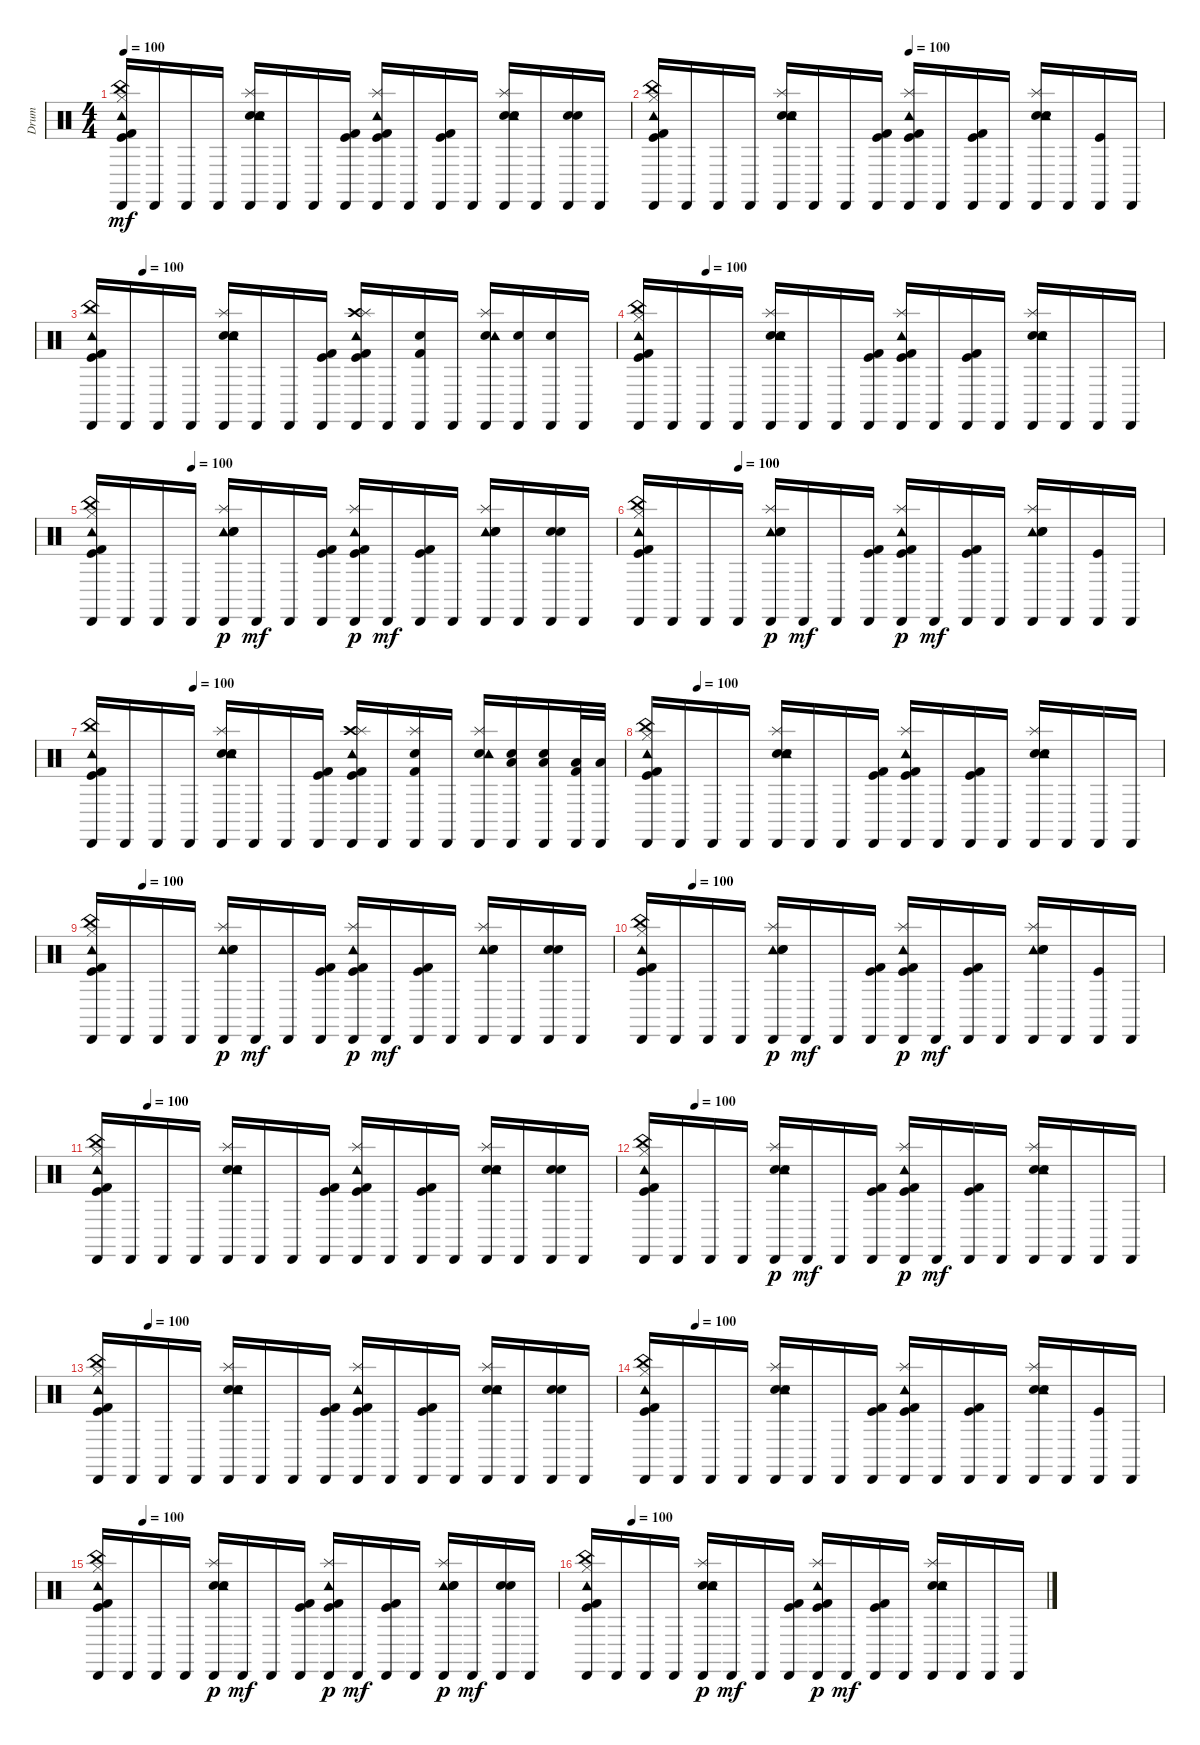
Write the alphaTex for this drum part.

\track ("Drum" "Drum") {instrument percussion}
\staff {score}
\articulation defaults
\ts (4 4)
\tempo 100
\clef neutral
\ks c
("China (hit)" "Kick (hit)" "Hi-Hat (closed)" "Kick (hit) 2" "Tambourine (hit)" "Cabasa (hit)").16{dy mf} "Cabasa (hit)".16 "Cabasa (hit)".16 "Cabasa (hit)".16 ("Electric Snare (hit)" "Splash (hit)" "Snare (hit) 2" "Cabasa (hit)" "Tambourine (hit)").16 "Cabasa (hit)".16 "Cabasa (hit)".16 ("Cabasa (hit)" "Kick (hit)" "Kick (hit) 2").16 ("Splash (hit)" "Kick (hit) 2" "Kick (hit)" "Cabasa (hit)" "Tambourine (hit)").16 "Cabasa (hit)".16 ("Cabasa (hit)" "Kick (hit)" "Kick (hit) 2").16 "Cabasa (hit)".16 ("Electric Snare (hit)" "Snare (hit) 2" "Splash (hit)" "Cabasa (hit)" "Tambourine (hit)").16 "Cabasa (hit)".16 ("Electric Snare (hit)" "Snare (hit) 2" "Cabasa (hit)").16 "Cabasa (hit)".16 |
\tempo (100 0.5)
("China (hit)" "Kick (hit)" "Hi-Hat (closed)" "Tambourine (hit)" "Cabasa (hit)" "Kick (hit) 2").16 "Cabasa (hit)".16 "Cabasa (hit)".16 "Cabasa (hit)".16 ("Electric Snare (hit)" "Tambourine (hit)" "Cabasa (hit)" "Splash (hit)" "Snare (hit) 2").16 "Cabasa (hit)".16 "Cabasa (hit)".16 ("Kick (hit)" "Kick (hit) 2" "Cabasa (hit)").16 ("Kick (hit) 2" "Splash (hit)" "Kick (hit)" "Tambourine (hit)" "Cabasa (hit)").16 "Cabasa (hit)".16 ("Kick (hit) 2" "Kick (hit)" "Cabasa (hit)").16 "Cabasa (hit)".16 ("Electric Snare (hit)" "Snare (hit) 2" "Splash (hit)" "Tambourine (hit)" "Cabasa (hit)").16 "Cabasa (hit)".16 ("Kick (hit)" "Cabasa (hit)").16 "Cabasa (hit)".16 |
\tempo (100 0.09375)
("China (hit)" "Kick (hit)" "Cabasa (hit)" "Kick (hit) 2" "Tambourine (hit)").16 "Cabasa (hit)".16 "Cabasa (hit)".16 "Cabasa (hit)".16 ("Splash (hit)" "Snare (hit) 2" "Cabasa (hit)" "Tambourine (hit)" "Electric Snare (hit)").16 "Cabasa (hit)".16 "Cabasa (hit)".16 ("Kick (hit)" "Cabasa (hit)" "Kick (hit) 2").16 ("Crash high (hit)" "Splash (hit)" "Kick (hit)" "Cabasa (hit)" "Kick (hit) 2" "Tambourine (hit)").16 "Cabasa (hit)".16 ("Cabasa (hit)" "Snare (hit) 2" "Kick (hit) 2").16 "Cabasa (hit)".16 ("Snare (hit) 2" "Splash (hit)" "Cabasa (hit)" "Tambourine (hit)").16 ("Cabasa (hit)" "Snare (hit) 2").16 ("Snare (hit) 2" "Cabasa (hit)").16 "Cabasa (hit)".16 |
\tempo (100 0.125)
("Kick (hit) 2" "Hi-Hat (closed)" "China (hit)" "Kick (hit)" "Cabasa (hit)" "Tambourine (hit)").16 "Cabasa (hit)".16 "Cabasa (hit)".16 "Cabasa (hit)".16 ("Splash (hit)" "Snare (hit) 2" "Cabasa (hit)" "Tambourine (hit)" "Electric Snare (hit)").16 "Cabasa (hit)".16 "Cabasa (hit)".16 ("Kick (hit) 2" "Kick (hit)" "Cabasa (hit)").16 ("Kick (hit) 2" "Splash (hit)" "Kick (hit)" "Cabasa (hit)" "Tambourine (hit)").16 "Cabasa (hit)".16 ("Kick (hit) 2" "Kick (hit)" "Cabasa (hit)").16 "Cabasa (hit)".16 ("Snare (hit) 2" "Splash (hit)" "Cabasa (hit)" "Tambourine (hit)" "Electric Snare (hit)").16 "Cabasa (hit)".16 "Cabasa (hit)".16 "Cabasa (hit)".16 |
\tempo (100 0.1875)
("Tambourine (hit)" "Cabasa (hit)" "Kick (hit)" "China (hit)" "Hi-Hat (closed)" "Kick (hit) 2").16 "Cabasa (hit)".16 "Cabasa (hit)".16 "Cabasa (hit)".16 ("Tambourine (hit)" "Cabasa (hit)" "Snare (hit) 2" "Splash (hit)" "Electric Snare (hit)").16{dy p} "Cabasa (hit)".16{dy mf} "Cabasa (hit)".16 ("Cabasa (hit)" "Kick (hit)" "Kick (hit) 2").16 ("Tambourine (hit)" "Cabasa (hit)" "Kick (hit)" "Splash (hit)" "Kick (hit) 2").16{dy p} "Cabasa (hit)".16{dy mf} ("Cabasa (hit)" "Kick (hit)" "Kick (hit) 2").16 "Cabasa (hit)".16 ("Tambourine (hit)" "Cabasa (hit)" "Splash (hit)" "Snare (hit) 2" "Electric Snare (hit)").16 "Cabasa (hit)".16 ("Cabasa (hit)" "Snare (hit) 2" "Electric Snare (hit)").16 "Cabasa (hit)".16 |
\tempo (100 0.1875)
("Tambourine (hit)" "Cabasa (hit)" "Kick (hit)" "China (hit)" "Hi-Hat (closed)" "Kick (hit) 2").16 "Cabasa (hit)".16 "Cabasa (hit)".16 "Cabasa (hit)".16 ("Tambourine (hit)" "Cabasa (hit)" "Snare (hit) 2" "Splash (hit)" "Electric Snare (hit)").16{dy p} "Cabasa (hit)".16{dy mf} "Cabasa (hit)".16 ("Cabasa (hit)" "Kick (hit)" "Kick (hit) 2").16 ("Tambourine (hit)" "Cabasa (hit)" "Kick (hit)" "Splash (hit)" "Kick (hit) 2").16{dy p} "Cabasa (hit)".16{dy mf} ("Cabasa (hit)" "Kick (hit)" "Kick (hit) 2").16 "Cabasa (hit)".16 ("Tambourine (hit)" "Cabasa (hit)" "Splash (hit)" "Snare (hit) 2" "Electric Snare (hit)").16 "Cabasa (hit)".16 ("Cabasa (hit)" "Kick (hit)").16 "Cabasa (hit)".16 |
\tempo (100 0.1875)
("China (hit)" "Kick (hit)" "Cabasa (hit)" "Kick (hit) 2" "Tambourine (hit)").16 "Cabasa (hit)".16 "Cabasa (hit)".16 "Cabasa (hit)".16 ("Splash (hit)" "Snare (hit) 2" "Cabasa (hit)" "Tambourine (hit)" "Electric Snare (hit)").16 "Cabasa (hit)".16 "Cabasa (hit)".16 ("Kick (hit)" "Cabasa (hit)" "Kick (hit) 2").16 ("Crash high (hit)" "Splash (hit)" "Kick (hit)" "Cabasa (hit)" "Kick (hit) 2" "Tambourine (hit)").16 "Cabasa (hit)".16 ("Splash (hit)" "Cabasa (hit)" "Snare (hit) 2" "Kick (hit) 2").16 "Cabasa (hit)".16 ("Snare (hit) 2" "Splash (hit)" "Cabasa (hit)" "Tambourine (hit)").16 ("Low Tom (hit)" "Cabasa (hit)" "Snare (hit) 2").16 ("Low Tom (hit)" "Snare (hit) 2" "Cabasa (hit)").16 ("Kick (hit) 2" "Low Tom (hit)" "Cabasa (hit)").32 ("Low Tom (hit)" "Cabasa (hit)").32 |
\tempo (100 0.09375)
("Kick (hit) 2" "Hi-Hat (closed)" "China (hit)" "Kick (hit)" "Cabasa (hit)" "Tambourine (hit)").16 "Cabasa (hit)".16 "Cabasa (hit)".16 "Cabasa (hit)".16 ("Splash (hit)" "Snare (hit) 2" "Cabasa (hit)" "Tambourine (hit)" "Electric Snare (hit)").16 "Cabasa (hit)".16 "Cabasa (hit)".16 ("Kick (hit) 2" "Kick (hit)" "Cabasa (hit)").16 ("Kick (hit) 2" "Splash (hit)" "Kick (hit)" "Cabasa (hit)" "Tambourine (hit)").16 "Cabasa (hit)".16 ("Kick (hit) 2" "Kick (hit)" "Cabasa (hit)").16 "Cabasa (hit)".16 ("Snare (hit) 2" "Splash (hit)" "Cabasa (hit)" "Tambourine (hit)" "Electric Snare (hit)").16 "Cabasa (hit)".16 "Cabasa (hit)".16 "Cabasa (hit)".16 |
\tempo (100 0.09375)
("Tambourine (hit)" "Cabasa (hit)" "Kick (hit)" "China (hit)" "Hi-Hat (closed)" "Kick (hit) 2").16 "Cabasa (hit)".16 "Cabasa (hit)".16 "Cabasa (hit)".16 ("Tambourine (hit)" "Cabasa (hit)" "Snare (hit) 2" "Splash (hit)" "Electric Snare (hit)").16{dy p} "Cabasa (hit)".16{dy mf} "Cabasa (hit)".16 ("Cabasa (hit)" "Kick (hit)" "Kick (hit) 2").16 ("Tambourine (hit)" "Cabasa (hit)" "Kick (hit)" "Splash (hit)" "Kick (hit) 2").16{dy p} "Cabasa (hit)".16{dy mf} ("Cabasa (hit)" "Kick (hit)" "Kick (hit) 2").16 "Cabasa (hit)".16 ("Tambourine (hit)" "Cabasa (hit)" "Splash (hit)" "Snare (hit) 2" "Electric Snare (hit)").16 "Cabasa (hit)".16 ("Cabasa (hit)" "Snare (hit) 2" "Electric Snare (hit)").16 "Cabasa (hit)".16 |
\tempo (100 0.09375)
("Tambourine (hit)" "Cabasa (hit)" "Kick (hit)" "China (hit)" "Hi-Hat (closed)" "Kick (hit) 2").16 "Cabasa (hit)".16 "Cabasa (hit)".16 "Cabasa (hit)".16 ("Tambourine (hit)" "Cabasa (hit)" "Snare (hit) 2" "Splash (hit)" "Electric Snare (hit)").16{dy p} "Cabasa (hit)".16{dy mf} "Cabasa (hit)".16 ("Cabasa (hit)" "Kick (hit)" "Kick (hit) 2").16 ("Tambourine (hit)" "Cabasa (hit)" "Kick (hit)" "Splash (hit)" "Kick (hit) 2").16{dy p} "Cabasa (hit)".16{dy mf} ("Cabasa (hit)" "Kick (hit)" "Kick (hit) 2").16 "Cabasa (hit)".16 ("Tambourine (hit)" "Cabasa (hit)" "Splash (hit)" "Snare (hit) 2" "Electric Snare (hit)").16 "Cabasa (hit)".16 ("Cabasa (hit)" "Kick (hit)").16 "Cabasa (hit)".16 |
\tempo (100 0.09375)
("Kick (hit) 2" "Hi-Hat (closed)" "China (hit)" "Kick (hit)" "Cabasa (hit)" "Tambourine (hit)").16 "Cabasa (hit)".16 "Cabasa (hit)".16 "Cabasa (hit)".16 ("Electric Snare (hit)" "Splash (hit)" "Snare (hit) 2" "Cabasa (hit)" "Tambourine (hit)").16 "Cabasa (hit)".16 "Cabasa (hit)".16 ("Kick (hit) 2" "Kick (hit)" "Cabasa (hit)").16 ("Kick (hit) 2" "Splash (hit)" "Kick (hit)" "Cabasa (hit)" "Tambourine (hit)").16 "Cabasa (hit)".16 ("Kick (hit) 2" "Kick (hit)" "Cabasa (hit)").16 "Cabasa (hit)".16 ("Electric Snare (hit)" "Snare (hit) 2" "Splash (hit)" "Cabasa (hit)" "Tambourine (hit)").16 "Cabasa (hit)".16 ("Electric Snare (hit)" "Snare (hit) 2" "Cabasa (hit)").16 "Cabasa (hit)".16 |
\tempo (100 0.09375)
("Tambourine (hit)" "Cabasa (hit)" "Kick (hit)" "China (hit)" "Hi-Hat (closed)" "Kick (hit) 2").16 "Cabasa (hit)".16 "Cabasa (hit)".16 "Cabasa (hit)".16 ("Electric Snare (hit)" "Tambourine (hit)" "Cabasa (hit)" "Snare (hit) 2" "Splash (hit)").16{dy p} "Cabasa (hit)".16{dy mf} "Cabasa (hit)".16 ("Cabasa (hit)" "Kick (hit)" "Kick (hit) 2").16 ("Tambourine (hit)" "Cabasa (hit)" "Kick (hit)" "Splash (hit)" "Kick (hit) 2").16{dy p} "Cabasa (hit)".16{dy mf} ("Cabasa (hit)" "Kick (hit)" "Kick (hit) 2").16 "Cabasa (hit)".16 ("Electric Snare (hit)" "Tambourine (hit)" "Cabasa (hit)" "Splash (hit)" "Snare (hit) 2").16 "Cabasa (hit)".16 "Cabasa (hit)".16 "Cabasa (hit)".16 |
\tempo (100 0.09375)
("Kick (hit) 2" "Hi-Hat (closed)" "China (hit)" "Kick (hit)" "Cabasa (hit)" "Tambourine (hit)").16 "Cabasa (hit)".16 "Cabasa (hit)".16 "Cabasa (hit)".16 ("Electric Snare (hit)" "Splash (hit)" "Snare (hit) 2" "Cabasa (hit)" "Tambourine (hit)").16 "Cabasa (hit)".16 "Cabasa (hit)".16 ("Kick (hit) 2" "Kick (hit)" "Cabasa (hit)").16 ("Kick (hit) 2" "Splash (hit)" "Kick (hit)" "Cabasa (hit)" "Tambourine (hit)").16 "Cabasa (hit)".16 ("Kick (hit) 2" "Kick (hit)" "Cabasa (hit)").16 "Cabasa (hit)".16 ("Electric Snare (hit)" "Snare (hit) 2" "Splash (hit)" "Cabasa (hit)" "Tambourine (hit)").16 "Cabasa (hit)".16 ("Electric Snare (hit)" "Snare (hit) 2" "Cabasa (hit)").16 "Cabasa (hit)".16 |
\tempo (100 0.09375)
("Kick (hit) 2" "Hi-Hat (closed)" "China (hit)" "Kick (hit)" "Cabasa (hit)" "Tambourine (hit)").16 "Cabasa (hit)".16 "Cabasa (hit)".16 "Cabasa (hit)".16 ("Electric Snare (hit)" "Splash (hit)" "Snare (hit) 2" "Cabasa (hit)" "Tambourine (hit)").16 "Cabasa (hit)".16 "Cabasa (hit)".16 ("Kick (hit) 2" "Kick (hit)" "Cabasa (hit)").16 ("Kick (hit) 2" "Splash (hit)" "Kick (hit)" "Cabasa (hit)" "Tambourine (hit)").16 "Cabasa (hit)".16 ("Kick (hit) 2" "Kick (hit)" "Cabasa (hit)").16 "Cabasa (hit)".16 ("Electric Snare (hit)" "Snare (hit) 2" "Splash (hit)" "Cabasa (hit)" "Tambourine (hit)").16 "Cabasa (hit)".16 ("Kick (hit)" "Cabasa (hit)").16 "Cabasa (hit)".16 |
\tempo (100 0.09375)
("Kick (hit)" "China (hit)" "Tambourine (hit)" "Cabasa (hit)" "Kick (hit) 2" "Hi-Hat (closed)").16 "Cabasa (hit)".16 "Cabasa (hit)".16 "Cabasa (hit)".16 ("Snare (hit) 2" "Cabasa (hit)" "Tambourine (hit)" "Splash (hit)" "Electric Snare (hit)").16{dy p} "Cabasa (hit)".16{dy mf} "Cabasa (hit)".16 ("Kick (hit)" "Kick (hit) 2" "Cabasa (hit)").16 ("Kick (hit)" "Cabasa (hit)" "Tambourine (hit)" "Splash (hit)" "Kick (hit) 2").16{dy p} "Cabasa (hit)".16{dy mf} ("Kick (hit)" "Cabasa (hit)" "Kick (hit) 2").16 "Cabasa (hit)".16 ("Tambourine (hit)" "Electric Snare (hit)" "Snare (hit) 2" "Cabasa (hit)" "Splash (hit)").16{dy p} "Cabasa (hit)".16{dy mf} ("Electric Snare (hit)" "Cabasa (hit)" "Snare (hit) 2").16 "Cabasa (hit)".16 |
\tempo (100 0.09375)
("Tambourine (hit)" "Cabasa (hit)" "Kick (hit)" "China (hit)" "Hi-Hat (closed)" "Kick (hit) 2").16 "Cabasa (hit)".16 "Cabasa (hit)".16 "Cabasa (hit)".16 ("Electric Snare (hit)" "Tambourine (hit)" "Cabasa (hit)" "Snare (hit) 2" "Splash (hit)").16{dy p} "Cabasa (hit)".16{dy mf} "Cabasa (hit)".16 ("Cabasa (hit)" "Kick (hit)" "Kick (hit) 2").16 ("Tambourine (hit)" "Cabasa (hit)" "Kick (hit)" "Splash (hit)" "Kick (hit) 2").16{dy p} "Cabasa (hit)".16{dy mf} ("Cabasa (hit)" "Kick (hit)" "Kick (hit) 2").16 "Cabasa (hit)".16 ("Electric Snare (hit)" "Tambourine (hit)" "Cabasa (hit)" "Splash (hit)" "Snare (hit) 2").16 "Cabasa (hit)".16 "Cabasa (hit)".16 "Cabasa (hit)".16
